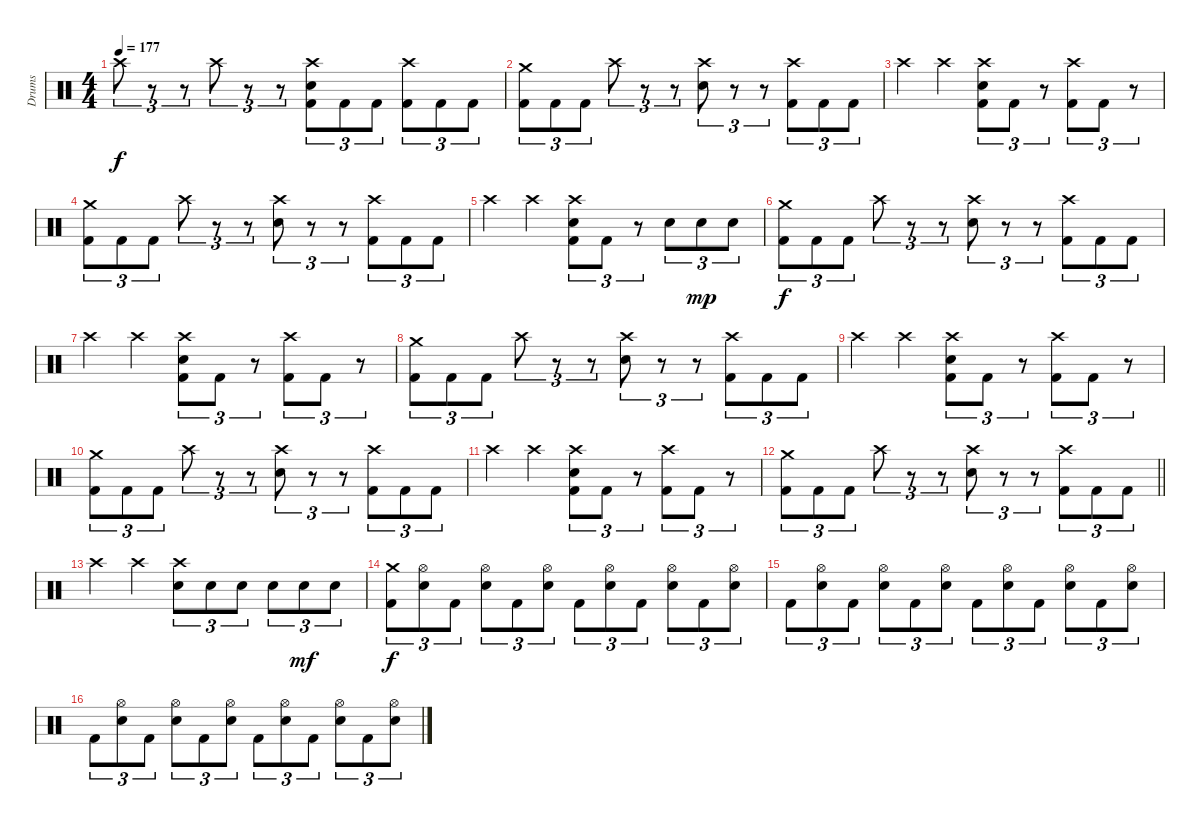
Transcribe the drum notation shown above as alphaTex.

\track ("Drums" "Drums") {instrument percussion}
\staff {score}
\articulation defaults
\ts (4 4)
\tempo 177
\clef neutral
\ks c "Crash high (hit)".8{tu (3 2) dy f}
r.8{tu (3 2)} r.8{tu (3 2)} "Crash high (hit)".8{tu (3 2)} r.8{tu (3 2)} r.8{tu (3 2)} ("Crash high (hit)" "Electric Snare (hit)" "Kick (hit) 2").8{tu (3 2)} "Kick (hit) 2".8{tu (3 2)} "Kick (hit) 2".8{tu (3 2)} ("Crash high (hit)" "Kick (hit) 2").8{tu (3 2)} "Kick (hit) 2".8{tu (3 2)} "Kick (hit) 2".8{tu (3 2)} |
("Crash medium (hit)" "Kick (hit) 2").8{tu (3 2)} "Kick (hit) 2".8{tu (3 2)} "Kick (hit) 2".8{tu (3 2)} "Crash high (hit)".8{tu (3 2)} r.8{tu (3 2)} r.8{tu (3 2)} ("Crash high (hit)" "Electric Snare (hit)").8{tu (3 2)} r.8{tu (3 2)} r.8{tu (3 2)} ("Crash high (hit)" "Kick (hit) 2").8{tu (3 2)} "Kick (hit) 2".8{tu (3 2)} "Kick (hit) 2".8{tu (3 2)} |
"Crash high (hit)".4 "Crash high (hit)".4 ("Crash high (hit)" "Electric Snare (hit)" "Kick (hit) 2").8{tu (3 2)} "Kick (hit) 2".8{tu (3 2)} r.8{tu (3 2)} ("Crash high (hit)" "Kick (hit) 2").8{tu (3 2)} "Kick (hit) 2".8{tu (3 2)} r.8{tu (3 2)} |
("Crash medium (hit)" "Kick (hit) 2").8{tu (3 2)} "Kick (hit) 2".8{tu (3 2)} "Kick (hit) 2".8{tu (3 2)} "Crash high (hit)".8{tu (3 2)} r.8{tu (3 2)} r.8{tu (3 2)} ("Crash high (hit)" "Electric Snare (hit)").8{tu (3 2)} r.8{tu (3 2)} r.8{tu (3 2)} ("Crash high (hit)" "Kick (hit) 2").8{tu (3 2)} "Kick (hit) 2".8{tu (3 2)} "Kick (hit) 2".8{tu (3 2)} |
"Crash high (hit)".4 "Crash high (hit)".4 ("Crash high (hit)" "Electric Snare (hit)" "Kick (hit) 2").8{tu (3 2)} "Kick (hit) 2".8{tu (3 2)} r.8{tu (3 2)} "Electric Snare (hit)".8{tu (3 2)} "Electric Snare (hit)".8{tu (3 2) dy mp} "Electric Snare (hit)".8{tu (3 2)} |
("Crash medium (hit)" "Kick (hit) 2").8{tu (3 2) dy f} "Kick (hit) 2".8{tu (3 2)} "Kick (hit) 2".8{tu (3 2)} "Crash high (hit)".8{tu (3 2)} r.8{tu (3 2)} r.8{tu (3 2)} ("Crash high (hit)" "Electric Snare (hit)").8{tu (3 2)} r.8{tu (3 2)} r.8{tu (3 2)} ("Crash high (hit)" "Kick (hit) 2").8{tu (3 2)} "Kick (hit) 2".8{tu (3 2)} "Kick (hit) 2".8{tu (3 2)} |
"Crash high (hit)".4 "Crash high (hit)".4 ("Crash high (hit)" "Electric Snare (hit)" "Kick (hit) 2").8{tu (3 2)} "Kick (hit) 2".8{tu (3 2)} r.8{tu (3 2)} ("Crash high (hit)" "Kick (hit) 2").8{tu (3 2)} "Kick (hit) 2".8{tu (3 2)} r.8{tu (3 2)} |
("Crash medium (hit)" "Kick (hit) 2").8{tu (3 2)} "Kick (hit) 2".8{tu (3 2)} "Kick (hit) 2".8{tu (3 2)} "Crash high (hit)".8{tu (3 2)} r.8{tu (3 2)} r.8{tu (3 2)} ("Crash high (hit)" "Electric Snare (hit)").8{tu (3 2)} r.8{tu (3 2)} r.8{tu (3 2)} ("Crash high (hit)" "Kick (hit) 2").8{tu (3 2)} "Kick (hit) 2".8{tu (3 2)} "Kick (hit) 2".8{tu (3 2)} |
"Crash high (hit)".4 "Crash high (hit)".4 ("Crash high (hit)" "Electric Snare (hit)" "Kick (hit) 2").8{tu (3 2)} "Kick (hit) 2".8{tu (3 2)} r.8{tu (3 2)} ("Crash high (hit)" "Kick (hit) 2").8{tu (3 2)} "Kick (hit) 2".8{tu (3 2)} r.8{tu (3 2)} |
("Crash medium (hit)" "Kick (hit) 2").8{tu (3 2)} "Kick (hit) 2".8{tu (3 2)} "Kick (hit) 2".8{tu (3 2)} "Crash high (hit)".8{tu (3 2)} r.8{tu (3 2)} r.8{tu (3 2)} ("Crash high (hit)" "Electric Snare (hit)").8{tu (3 2)} r.8{tu (3 2)} r.8{tu (3 2)} ("Crash high (hit)" "Kick (hit) 2").8{tu (3 2)} "Kick (hit) 2".8{tu (3 2)} "Kick (hit) 2".8{tu (3 2)} |
"Crash high (hit)".4 "Crash high (hit)".4 ("Crash high (hit)" "Electric Snare (hit)" "Kick (hit) 2").8{tu (3 2)} "Kick (hit) 2".8{tu (3 2)} r.8{tu (3 2)} ("Crash high (hit)" "Kick (hit) 2").8{tu (3 2)} "Kick (hit) 2".8{tu (3 2)} r.8{tu (3 2)} |
\barLineRight lightlight
("Crash medium (hit)" "Kick (hit) 2").8{tu (3 2)} "Kick (hit) 2".8{tu (3 2)} "Kick (hit) 2".8{tu (3 2)} "Crash high (hit)".8{tu (3 2)} r.8{tu (3 2)} r.8{tu (3 2)} ("Crash high (hit)" "Electric Snare (hit)").8{tu (3 2)} r.8{tu (3 2)} r.8{tu (3 2)} ("Crash high (hit)" "Kick (hit) 2").8{tu (3 2)} "Kick (hit) 2".8{tu (3 2)} "Kick (hit) 2".8{tu (3 2)} |
"Crash high (hit)".4 "Crash high (hit)".4 ("Crash high (hit)" "Electric Snare (hit)").8{tu (3 2)} "Electric Snare (hit)".8{tu (3 2)} "Electric Snare (hit)".8{tu (3 2)} "Electric Snare (hit)".8{tu (3 2)} "Electric Snare (hit)".8{tu (3 2) dy mf} "Electric Snare (hit)".8{tu (3 2)} |
("Crash medium (hit)" "Kick (hit) 2").8{tu (3 2) dy f} ("Hi-Hat (open)" "Electric Snare (hit)").8{tu (3 2)} "Kick (hit) 2".8{tu (3 2)} ("Hi-Hat (open)" "Electric Snare (hit)").8{tu (3 2)} "Kick (hit) 2".8{tu (3 2)} ("Hi-Hat (open)" "Electric Snare (hit)").8{tu (3 2)} "Kick (hit) 2".8{tu (3 2)} ("Hi-Hat (open)" "Electric Snare (hit)").8{tu (3 2)} "Kick (hit) 2".8{tu (3 2)} ("Hi-Hat (open)" "Electric Snare (hit)").8{tu (3 2)} "Kick (hit) 2".8{tu (3 2)} ("Hi-Hat (open)" "Electric Snare (hit)").8{tu (3 2)} |
"Kick (hit) 2".8{tu (3 2)} ("Hi-Hat (open)" "Electric Snare (hit)").8{tu (3 2)} "Kick (hit) 2".8{tu (3 2)} ("Hi-Hat (open)" "Electric Snare (hit)").8{tu (3 2)} "Kick (hit) 2".8{tu (3 2)} ("Hi-Hat (open)" "Electric Snare (hit)").8{tu (3 2)} "Kick (hit) 2".8{tu (3 2)} ("Hi-Hat (open)" "Electric Snare (hit)").8{tu (3 2)} "Kick (hit) 2".8{tu (3 2)} ("Hi-Hat (open)" "Electric Snare (hit)").8{tu (3 2)} "Kick (hit) 2".8{tu (3 2)} ("Hi-Hat (open)" "Electric Snare (hit)").8{tu (3 2)} |
"Kick (hit) 2".8{tu (3 2)} ("Hi-Hat (open)" "Electric Snare (hit)").8{tu (3 2)} "Kick (hit) 2".8{tu (3 2)} ("Hi-Hat (open)" "Electric Snare (hit)").8{tu (3 2)} "Kick (hit) 2".8{tu (3 2)} ("Hi-Hat (open)" "Electric Snare (hit)").8{tu (3 2)} "Kick (hit) 2".8{tu (3 2)} ("Hi-Hat (open)" "Electric Snare (hit)").8{tu (3 2)} "Kick (hit) 2".8{tu (3 2)} ("Hi-Hat (open)" "Electric Snare (hit)").8{tu (3 2)} "Kick (hit) 2".8{tu (3 2)} ("Hi-Hat (open)" "Electric Snare (hit)").8{tu (3 2)}
